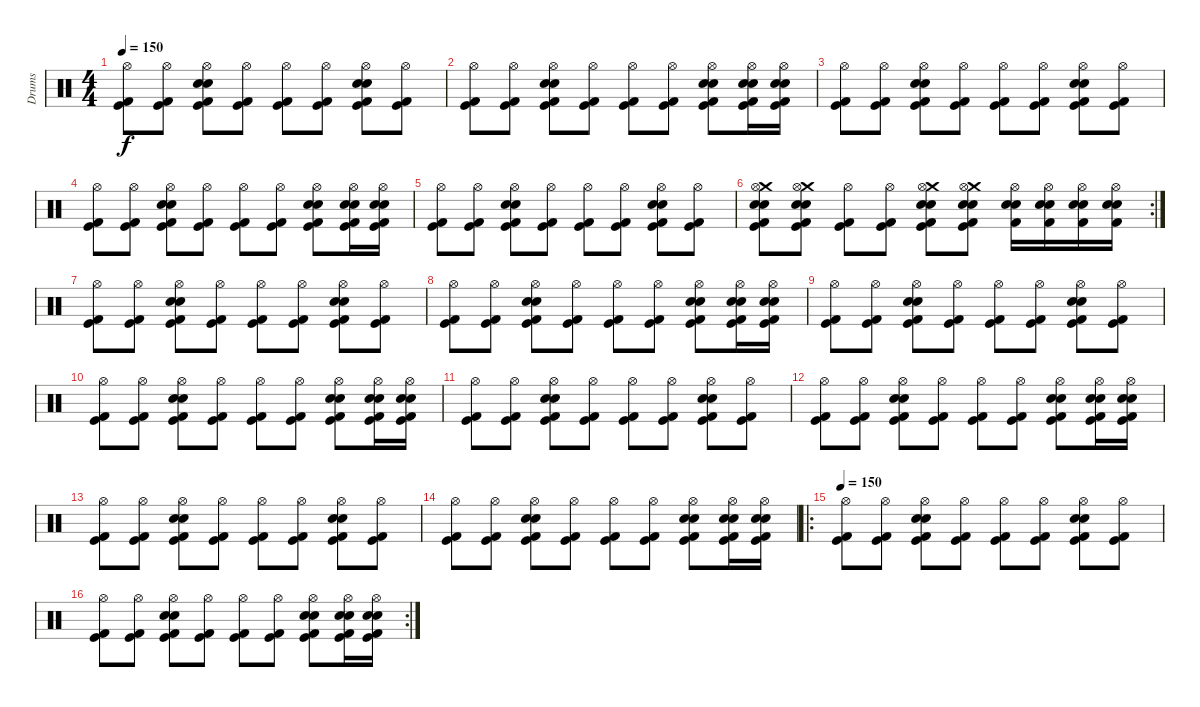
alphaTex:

\track ("Drums" "Drums") {instrument percussion}
\staff {score}
\articulation defaults
\ts (4 4)
\tempo 150
\clef neutral
\ks c
("Hi-Hat (open)" "Kick (hit)" "Kick (hit) 2").8{dy f} ("Hi-Hat (open)" "Kick (hit)" "Kick (hit) 2").8 ("Snare (hit) 2" "Electric Snare (hit)" "Hi-Hat (open)" "Kick (hit)" "Kick (hit) 2").8 ("Hi-Hat (open)" "Kick (hit)" "Kick (hit) 2").8 ("Hi-Hat (open)" "Kick (hit)" "Kick (hit) 2").8 ("Hi-Hat (open)" "Kick (hit)" "Kick (hit) 2").8 ("Snare (hit) 2" "Electric Snare (hit)" "Hi-Hat (open)" "Kick (hit)" "Kick (hit) 2").8 ("Hi-Hat (open)" "Kick (hit)" "Kick (hit) 2").8 |
("Hi-Hat (open)" "Kick (hit)" "Kick (hit) 2").8 ("Hi-Hat (open)" "Kick (hit)" "Kick (hit) 2").8 ("Snare (hit) 2" "Electric Snare (hit)" "Hi-Hat (open)" "Kick (hit)" "Kick (hit) 2").8 ("Hi-Hat (open)" "Kick (hit)" "Kick (hit) 2").8 ("Hi-Hat (open)" "Kick (hit)" "Kick (hit) 2").8 ("Hi-Hat (open)" "Kick (hit)" "Kick (hit) 2").8 ("Snare (hit) 2" "Electric Snare (hit)" "Hi-Hat (open)" "Kick (hit)" "Kick (hit) 2").8 ("Snare (hit) 2" "Electric Snare (hit)" "Hi-Hat (open)" "Kick (hit)" "Kick (hit) 2").16 ("Snare (hit) 2" "Electric Snare (hit)" "Hi-Hat (open)" "Kick (hit)" "Kick (hit) 2").16 |
("Hi-Hat (open)" "Kick (hit)" "Kick (hit) 2").8 ("Hi-Hat (open)" "Kick (hit)" "Kick (hit) 2").8 ("Snare (hit) 2" "Electric Snare (hit)" "Hi-Hat (open)" "Kick (hit)" "Kick (hit) 2").8 ("Hi-Hat (open)" "Kick (hit)" "Kick (hit) 2").8 ("Hi-Hat (open)" "Kick (hit)" "Kick (hit) 2").8 ("Hi-Hat (open)" "Kick (hit)" "Kick (hit) 2").8 ("Snare (hit) 2" "Electric Snare (hit)" "Hi-Hat (open)" "Kick (hit)" "Kick (hit) 2").8 ("Hi-Hat (open)" "Kick (hit)" "Kick (hit) 2").8 |
("Hi-Hat (open)" "Kick (hit)" "Kick (hit) 2").8 ("Hi-Hat (open)" "Kick (hit)" "Kick (hit) 2").8 ("Snare (hit) 2" "Electric Snare (hit)" "Hi-Hat (open)" "Kick (hit)" "Kick (hit) 2").8 ("Hi-Hat (open)" "Kick (hit)" "Kick (hit) 2").8 ("Hi-Hat (open)" "Kick (hit)" "Kick (hit) 2").8 ("Hi-Hat (open)" "Kick (hit)" "Kick (hit) 2").8 ("Snare (hit) 2" "Electric Snare (hit)" "Hi-Hat (open)" "Kick (hit)" "Kick (hit) 2").8 ("Snare (hit) 2" "Electric Snare (hit)" "Hi-Hat (open)" "Kick (hit)" "Kick (hit) 2").16 ("Snare (hit) 2" "Electric Snare (hit)" "Hi-Hat (open)" "Kick (hit)" "Kick (hit) 2").16 |
("Hi-Hat (open)" "Kick (hit)" "Kick (hit) 2").8 ("Hi-Hat (open)" "Kick (hit)" "Kick (hit) 2").8 ("Snare (hit) 2" "Electric Snare (hit)" "Hi-Hat (open)" "Kick (hit)" "Kick (hit) 2").8 ("Hi-Hat (open)" "Kick (hit)" "Kick (hit) 2").8 ("Hi-Hat (open)" "Kick (hit)" "Kick (hit) 2").8 ("Hi-Hat (open)" "Kick (hit)" "Kick (hit) 2").8 ("Snare (hit) 2" "Electric Snare (hit)" "Hi-Hat (open)" "Kick (hit)" "Kick (hit) 2").8 ("Hi-Hat (open)" "Kick (hit)" "Kick (hit) 2").8 |
\rc 2
("Crash medium (hit)" "Snare (hit) 2" "Electric Snare (hit)" "Hi-Hat (open)" "Kick (hit)" "Kick (hit) 2").8 ("Crash medium (hit)" "Snare (hit) 2" "Electric Snare (hit)" "Hi-Hat (open)" "Kick (hit)" "Kick (hit) 2").8 ("Hi-Hat (open)" "Kick (hit)" "Kick (hit) 2").8 ("Hi-Hat (open)" "Kick (hit)" "Kick (hit) 2").8 ("Crash medium (hit)" "Snare (hit) 2" "Electric Snare (hit)" "Hi-Hat (open)" "Kick (hit)" "Kick (hit) 2").8 ("Crash medium (hit)" "Snare (hit) 2" "Electric Snare (hit)" "Hi-Hat (open)" "Kick (hit)" "Kick (hit) 2").8 ("Hi-Hat (open)" "Kick (hit) 2" "Electric Snare (hit)" "Snare (hit) 2").16 ("Hi-Hat (open)" "Kick (hit) 2" "Electric Snare (hit)" "Snare (hit) 2").16 ("Hi-Hat (open)" "Kick (hit) 2" "Electric Snare (hit)" "Snare (hit) 2").16 ("Hi-Hat (open)" "Kick (hit) 2" "Electric Snare (hit)" "Snare (hit) 2").16 |
("Hi-Hat (open)" "Kick (hit)" "Kick (hit) 2").8 ("Hi-Hat (open)" "Kick (hit)" "Kick (hit) 2").8 ("Snare (hit) 2" "Electric Snare (hit)" "Hi-Hat (open)" "Kick (hit)" "Kick (hit) 2").8 ("Hi-Hat (open)" "Kick (hit)" "Kick (hit) 2").8 ("Hi-Hat (open)" "Kick (hit)" "Kick (hit) 2").8 ("Hi-Hat (open)" "Kick (hit)" "Kick (hit) 2").8 ("Snare (hit) 2" "Electric Snare (hit)" "Hi-Hat (open)" "Kick (hit)" "Kick (hit) 2").8 ("Hi-Hat (open)" "Kick (hit)" "Kick (hit) 2").8 |
("Hi-Hat (open)" "Kick (hit)" "Kick (hit) 2").8 ("Hi-Hat (open)" "Kick (hit)" "Kick (hit) 2").8 ("Snare (hit) 2" "Electric Snare (hit)" "Hi-Hat (open)" "Kick (hit)" "Kick (hit) 2").8 ("Hi-Hat (open)" "Kick (hit)" "Kick (hit) 2").8 ("Hi-Hat (open)" "Kick (hit)" "Kick (hit) 2").8 ("Hi-Hat (open)" "Kick (hit)" "Kick (hit) 2").8 ("Snare (hit) 2" "Electric Snare (hit)" "Hi-Hat (open)" "Kick (hit)" "Kick (hit) 2").8 ("Snare (hit) 2" "Electric Snare (hit)" "Hi-Hat (open)" "Kick (hit)" "Kick (hit) 2").16 ("Snare (hit) 2" "Electric Snare (hit)" "Hi-Hat (open)" "Kick (hit)" "Kick (hit) 2").16 |
("Hi-Hat (open)" "Kick (hit)" "Kick (hit) 2").8 ("Hi-Hat (open)" "Kick (hit)" "Kick (hit) 2").8 ("Snare (hit) 2" "Electric Snare (hit)" "Hi-Hat (open)" "Kick (hit)" "Kick (hit) 2").8 ("Hi-Hat (open)" "Kick (hit)" "Kick (hit) 2").8 ("Hi-Hat (open)" "Kick (hit)" "Kick (hit) 2").8 ("Hi-Hat (open)" "Kick (hit)" "Kick (hit) 2").8 ("Snare (hit) 2" "Electric Snare (hit)" "Hi-Hat (open)" "Kick (hit)" "Kick (hit) 2").8 ("Hi-Hat (open)" "Kick (hit)" "Kick (hit) 2").8 |
("Hi-Hat (open)" "Kick (hit)" "Kick (hit) 2").8 ("Hi-Hat (open)" "Kick (hit)" "Kick (hit) 2").8 ("Snare (hit) 2" "Electric Snare (hit)" "Hi-Hat (open)" "Kick (hit)" "Kick (hit) 2").8 ("Hi-Hat (open)" "Kick (hit)" "Kick (hit) 2").8 ("Hi-Hat (open)" "Kick (hit)" "Kick (hit) 2").8 ("Hi-Hat (open)" "Kick (hit)" "Kick (hit) 2").8 ("Snare (hit) 2" "Electric Snare (hit)" "Hi-Hat (open)" "Kick (hit)" "Kick (hit) 2").8 ("Snare (hit) 2" "Electric Snare (hit)" "Hi-Hat (open)" "Kick (hit)" "Kick (hit) 2").16 ("Snare (hit) 2" "Electric Snare (hit)" "Hi-Hat (open)" "Kick (hit)" "Kick (hit) 2").16 |
("Hi-Hat (open)" "Kick (hit)" "Kick (hit) 2").8 ("Hi-Hat (open)" "Kick (hit)" "Kick (hit) 2").8 ("Snare (hit) 2" "Electric Snare (hit)" "Hi-Hat (open)" "Kick (hit)" "Kick (hit) 2").8 ("Hi-Hat (open)" "Kick (hit)" "Kick (hit) 2").8 ("Hi-Hat (open)" "Kick (hit)" "Kick (hit) 2").8 ("Hi-Hat (open)" "Kick (hit)" "Kick (hit) 2").8 ("Snare (hit) 2" "Electric Snare (hit)" "Hi-Hat (open)" "Kick (hit)" "Kick (hit) 2").8 ("Hi-Hat (open)" "Kick (hit)" "Kick (hit) 2").8 |
("Hi-Hat (open)" "Kick (hit)" "Kick (hit) 2").8 ("Hi-Hat (open)" "Kick (hit)" "Kick (hit) 2").8 ("Snare (hit) 2" "Electric Snare (hit)" "Hi-Hat (open)" "Kick (hit)" "Kick (hit) 2").8 ("Hi-Hat (open)" "Kick (hit)" "Kick (hit) 2").8 ("Hi-Hat (open)" "Kick (hit)" "Kick (hit) 2").8 ("Hi-Hat (open)" "Kick (hit)" "Kick (hit) 2").8 ("Snare (hit) 2" "Electric Snare (hit)" "Hi-Hat (open)" "Kick (hit)" "Kick (hit) 2").8 ("Snare (hit) 2" "Electric Snare (hit)" "Hi-Hat (open)" "Kick (hit)" "Kick (hit) 2").16 ("Snare (hit) 2" "Electric Snare (hit)" "Hi-Hat (open)" "Kick (hit)" "Kick (hit) 2").16 |
("Hi-Hat (open)" "Kick (hit)" "Kick (hit) 2").8 ("Hi-Hat (open)" "Kick (hit)" "Kick (hit) 2").8 ("Snare (hit) 2" "Electric Snare (hit)" "Hi-Hat (open)" "Kick (hit)" "Kick (hit) 2").8 ("Hi-Hat (open)" "Kick (hit)" "Kick (hit) 2").8 ("Hi-Hat (open)" "Kick (hit)" "Kick (hit) 2").8 ("Hi-Hat (open)" "Kick (hit)" "Kick (hit) 2").8 ("Snare (hit) 2" "Electric Snare (hit)" "Hi-Hat (open)" "Kick (hit)" "Kick (hit) 2").8 ("Hi-Hat (open)" "Kick (hit)" "Kick (hit) 2").8 |
("Hi-Hat (open)" "Kick (hit)" "Kick (hit) 2").8 ("Hi-Hat (open)" "Kick (hit)" "Kick (hit) 2").8 ("Snare (hit) 2" "Electric Snare (hit)" "Hi-Hat (open)" "Kick (hit)" "Kick (hit) 2").8 ("Hi-Hat (open)" "Kick (hit)" "Kick (hit) 2").8 ("Hi-Hat (open)" "Kick (hit)" "Kick (hit) 2").8 ("Hi-Hat (open)" "Kick (hit)" "Kick (hit) 2").8 ("Snare (hit) 2" "Electric Snare (hit)" "Hi-Hat (open)" "Kick (hit)" "Kick (hit) 2").8 ("Snare (hit) 2" "Electric Snare (hit)" "Hi-Hat (open)" "Kick (hit)" "Kick (hit) 2").16 ("Snare (hit) 2" "Electric Snare (hit)" "Hi-Hat (open)" "Kick (hit)" "Kick (hit) 2").16 |
\ro
\tempo 150
("Hi-Hat (open)" "Kick (hit)" "Kick (hit) 2").8 ("Hi-Hat (open)" "Kick (hit)" "Kick (hit) 2").8 ("Snare (hit) 2" "Electric Snare (hit)" "Hi-Hat (open)" "Kick (hit)" "Kick (hit) 2").8 ("Hi-Hat (open)" "Kick (hit)" "Kick (hit) 2").8 ("Hi-Hat (open)" "Kick (hit)" "Kick (hit) 2").8 ("Hi-Hat (open)" "Kick (hit)" "Kick (hit) 2").8 ("Snare (hit) 2" "Electric Snare (hit)" "Hi-Hat (open)" "Kick (hit)" "Kick (hit) 2").8 ("Hi-Hat (open)" "Kick (hit)" "Kick (hit) 2").8 |
\rc 2
("Hi-Hat (open)" "Kick (hit)" "Kick (hit) 2").8 ("Hi-Hat (open)" "Kick (hit)" "Kick (hit) 2").8 ("Snare (hit) 2" "Electric Snare (hit)" "Hi-Hat (open)" "Kick (hit)" "Kick (hit) 2").8 ("Hi-Hat (open)" "Kick (hit)" "Kick (hit) 2").8 ("Hi-Hat (open)" "Kick (hit)" "Kick (hit) 2").8 ("Hi-Hat (open)" "Kick (hit)" "Kick (hit) 2").8 ("Snare (hit) 2" "Electric Snare (hit)" "Hi-Hat (open)" "Kick (hit)" "Kick (hit) 2").8 ("Snare (hit) 2" "Electric Snare (hit)" "Hi-Hat (open)" "Kick (hit)" "Kick (hit) 2").16 ("Snare (hit) 2" "Electric Snare (hit)" "Hi-Hat (open)" "Kick (hit)" "Kick (hit) 2").16
